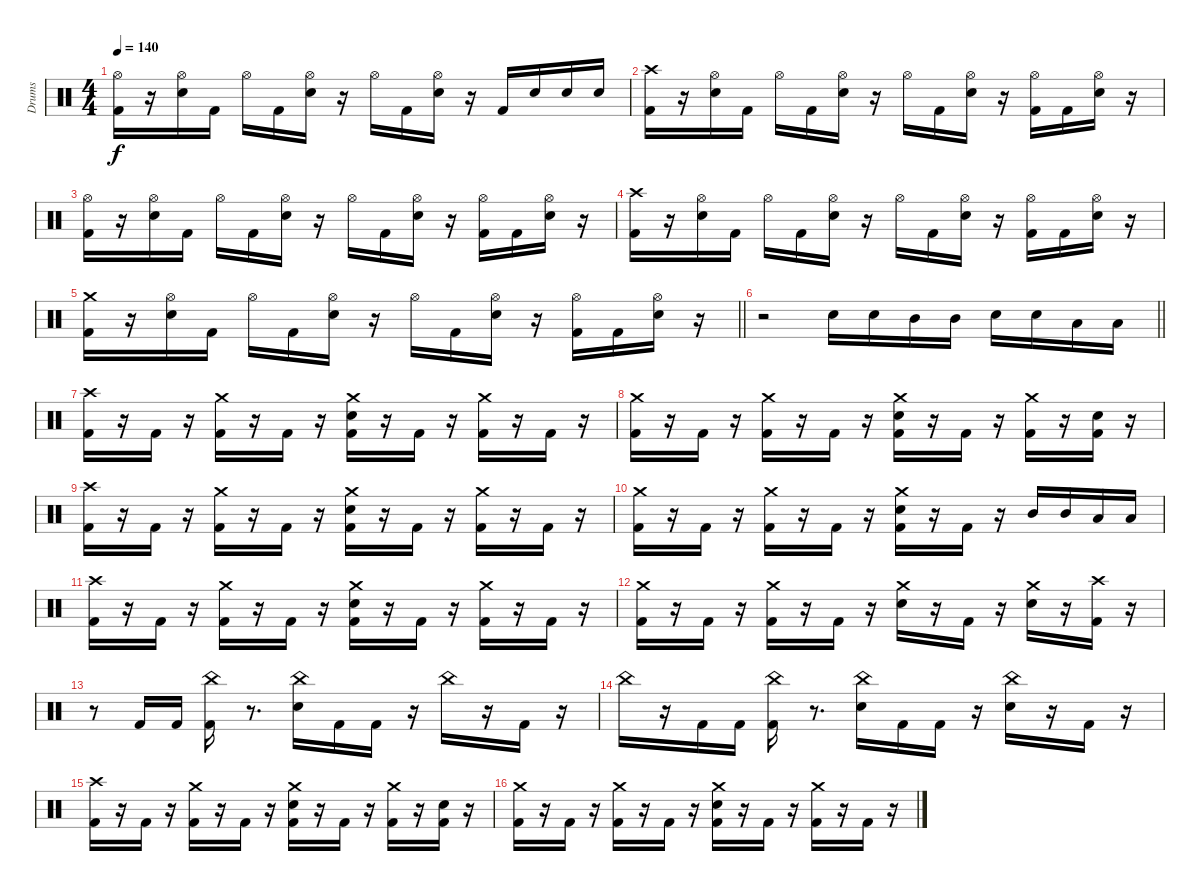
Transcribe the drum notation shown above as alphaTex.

\track ("Drums" "Drums") {instrument percussion}
\staff {score}
\articulation defaults
\ts (4 4)
\tempo 140
\clef neutral
\ks c
("Kick (hit) 2" "Hi-Hat (open)").16{dy f} r.16 ("Snare (hit) 2" "Hi-Hat (open)").16 "Kick (hit) 2".16 "Hi-Hat (open)".16 "Kick (hit) 2".16 ("Snare (hit) 2" "Hi-Hat (open)").16 r.16 "Hi-Hat (open)".16 "Kick (hit) 2".16 ("Snare (hit) 2" "Hi-Hat (open)").16 r.16 "Kick (hit) 2".16 "Snare (hit) 2".16 "Snare (hit) 2".16 "Snare (hit) 2".16 |
("Kick (hit) 2" "Crash high (hit)").16 r.16 ("Snare (hit) 2" "Hi-Hat (open)").16 "Kick (hit) 2".16 "Hi-Hat (open)".16 "Kick (hit) 2".16 ("Snare (hit) 2" "Hi-Hat (open)").16 r.16 "Hi-Hat (open)".16 "Kick (hit) 2".16 ("Snare (hit) 2" "Hi-Hat (open)").16 r.16 ("Kick (hit) 2" "Hi-Hat (open)").16 "Kick (hit) 2".16 ("Snare (hit) 2" "Hi-Hat (open)").16 r.16 |
("Kick (hit) 2" "Hi-Hat (open)").16 r.16 ("Snare (hit) 2" "Hi-Hat (open)").16 "Kick (hit) 2".16 "Hi-Hat (open)".16 "Kick (hit) 2".16 ("Snare (hit) 2" "Hi-Hat (open)").16 r.16 "Hi-Hat (open)".16 "Kick (hit) 2".16 ("Snare (hit) 2" "Hi-Hat (open)").16 r.16 ("Kick (hit) 2" "Hi-Hat (open)").16 "Kick (hit) 2".16 ("Snare (hit) 2" "Hi-Hat (open)").16 r.16 |
("Kick (hit) 2" "Crash high (hit)").16 r.16 ("Snare (hit) 2" "Hi-Hat (open)").16 "Kick (hit) 2".16 "Hi-Hat (open)".16 "Kick (hit) 2".16 ("Snare (hit) 2" "Hi-Hat (open)").16 r.16 "Hi-Hat (open)".16 "Kick (hit) 2".16 ("Snare (hit) 2" "Hi-Hat (open)").16 r.16 ("Kick (hit) 2" "Hi-Hat (open)").16 "Kick (hit) 2".16 ("Snare (hit) 2" "Hi-Hat (open)").16 r.16 |
\barLineRight lightlight
("Kick (hit) 2" "Crash medium (hit)").16 r.16 ("Snare (hit) 2" "Hi-Hat (open)").16 "Kick (hit) 2".16 "Hi-Hat (open)".16 "Kick (hit) 2".16 ("Snare (hit) 2" "Hi-Hat (open)").16 r.16 "Hi-Hat (open)".16 "Kick (hit) 2".16 ("Snare (hit) 2" "Hi-Hat (open)").16 r.16 ("Kick (hit) 2" "Hi-Hat (open)").16 "Kick (hit) 2".16 ("Snare (hit) 2" "Hi-Hat (open)").16 r.16 |
\section ("" " ")
\barLineRight lightlight
r.2 "Snare (hit) 2".16 "Snare (hit) 2".16 "Mid Tom (hit)".16 "Mid Tom (hit)".16 "Snare (hit) 2".16 "Snare (hit) 2".16 "Low Tom (hit)".16 "Low Tom (hit)".16 |
\section ("" " ")
("Kick (hit) 2" "Crash high (hit)").16 r.16 "Kick (hit) 2".16 r.16 ("Kick (hit) 2" "Crash medium (hit)").16 r.16 "Kick (hit) 2".16 r.16 ("Kick (hit) 2" "Snare (hit) 2" "Crash medium (hit)").16 r.16 "Kick (hit) 2".16 r.16 ("Kick (hit) 2" "Crash medium (hit)").16 r.16 "Kick (hit) 2".16 r.16 |
("Kick (hit) 2" "Crash medium (hit)").16 r.16 "Kick (hit) 2".16 r.16 ("Kick (hit) 2" "Crash medium (hit)").16 r.16 "Kick (hit) 2".16 r.16 ("Kick (hit) 2" "Snare (hit) 2" "Crash medium (hit)").16 r.16 "Kick (hit) 2".16 r.16 ("Kick (hit) 2" "Crash medium (hit)").16 r.16 ("Kick (hit) 2" "Snare (hit) 2").16 r.16 |
("Kick (hit) 2" "Crash high (hit)").16 r.16 "Kick (hit) 2".16 r.16 ("Kick (hit) 2" "Crash medium (hit)").16 r.16 "Kick (hit) 2".16 r.16 ("Kick (hit) 2" "Snare (hit) 2" "Crash medium (hit)").16 r.16 "Kick (hit) 2".16 r.16 ("Kick (hit) 2" "Crash medium (hit)").16 r.16 "Kick (hit) 2".16 r.16 |
("Kick (hit) 2" "Crash medium (hit)").16 r.16 "Kick (hit) 2".16 r.16 ("Kick (hit) 2" "Crash medium (hit)").16 r.16 "Kick (hit) 2".16 r.16 ("Kick (hit) 2" "Snare (hit) 2" "Crash medium (hit)").16 r.16 "Kick (hit) 2".16 r.16 "Mid Tom (hit)".16 "Mid Tom (hit)".16 "Low Tom (hit)".16 "Low Tom (hit)".16 |
("Kick (hit) 2" "Crash high (hit)").16 r.16 "Kick (hit) 2".16 r.16 ("Kick (hit) 2" "Crash medium (hit)").16 r.16 "Kick (hit) 2".16 r.16 ("Kick (hit) 2" "Snare (hit) 2" "Crash medium (hit)").16 r.16 "Kick (hit) 2".16 r.16 ("Kick (hit) 2" "Crash medium (hit)").16 r.16 "Kick (hit) 2".16 r.16 |
("Kick (hit) 2" "Crash medium (hit)").16 r.16 "Kick (hit) 2".16 r.16 ("Kick (hit) 2" "Crash medium (hit)").16 r.16 "Kick (hit) 2".16 r.16 ("Snare (hit) 2" "Crash medium (hit)").16 r.16 "Kick (hit) 2".16 r.16 ("Snare (hit) 2" "Crash medium (hit)").16 r.16 ("Kick (hit) 2" "Crash high (hit)").16 r.16 |
r.8 "Kick (hit) 2".16 "Kick (hit) 2".16 ("Kick (hit) 2" "China (hit)").16 r.8{d} ("Snare (hit) 2" "China (hit)").16 "Kick (hit) 2".16 "Kick (hit) 2".16 r.16 "China (hit)".16 r.16 "Kick (hit) 2".16 r.16 |
"China (hit)".16 r.16 "Kick (hit) 2".16 "Kick (hit) 2".16 ("Kick (hit) 2" "China (hit)").16 r.8{d} ("Snare (hit) 2" "China (hit)").16 "Kick (hit) 2".16 "Kick (hit) 2".16 r.16 ("Snare (hit) 2" "China (hit)").16 r.16 "Kick (hit) 2".16 r.16 |
("Kick (hit) 2" "Crash high (hit)").16 r.16 "Kick (hit) 2".16 r.16 ("Kick (hit) 2" "Crash medium (hit)").16 r.16 "Kick (hit) 2".16 r.16 ("Kick (hit) 2" "Snare (hit) 2" "Crash medium (hit)").16 r.16 "Kick (hit) 2".16 r.16 ("Kick (hit) 2" "Crash medium (hit)").16 r.16 ("Kick (hit) 2" "Snare (hit) 2").16 r.16 |
("Kick (hit) 2" "Crash medium (hit)").16 r.16 "Kick (hit) 2".16 r.16 ("Kick (hit) 2" "Crash medium (hit)").16 r.16 "Kick (hit) 2".16 r.16 ("Kick (hit) 2" "Snare (hit) 2" "Crash medium (hit)").16 r.16 "Kick (hit) 2".16 r.16 ("Kick (hit) 2" "Crash medium (hit)").16 r.16 "Kick (hit) 2".16 r.16
